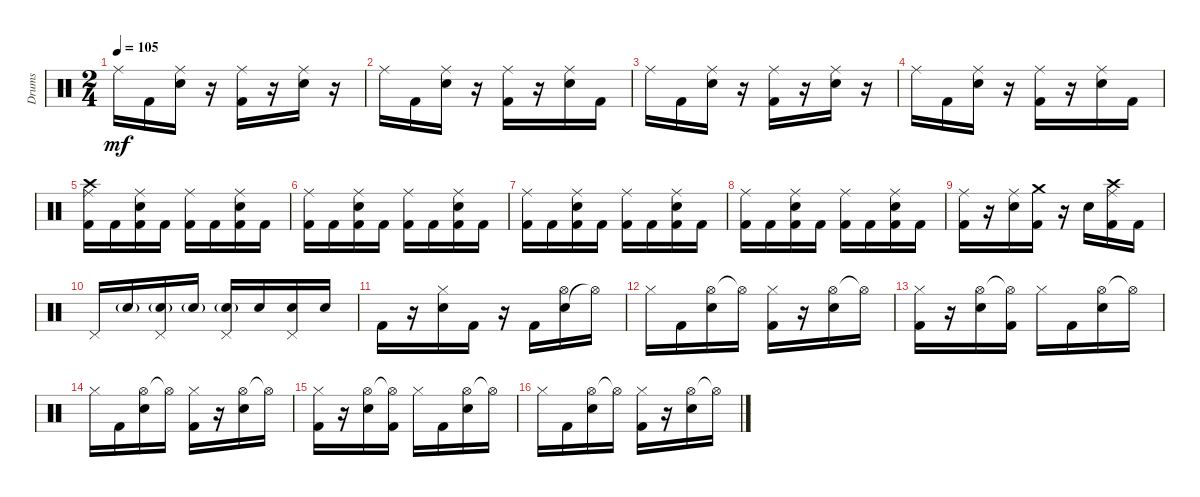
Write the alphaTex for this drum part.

\defaultSystemsLayout 4
\bracketExtendMode groupsimilarinstruments
\otherSystemsTrackNameOrientation horizontal
\track ("Godd" "Drums") {instrument percussion}
\staff {score}
\articulation defaults
\ts (2 4)
\tempo 105
\clef neutral
\ks c "Ride (middle)".16{dy mf} "Kick (hit) 2".16
("Ride (middle)" "Snare (hit) 2").16 r.16 ("Ride (middle)" "Kick (hit) 2").16 r.16 ("Ride (middle)" "Snare (hit) 2").16 r.16 |
"Ride (middle)".16 "Kick (hit) 2".16 ("Ride (middle)" "Snare (hit) 2").16 r.16 ("Ride (middle)" "Kick (hit) 2").16 r.16 ("Ride (middle)" "Snare (hit) 2").16 "Kick (hit) 2".16 |
"Ride (middle)".16 "Kick (hit) 2".16 ("Ride (middle)" "Snare (hit) 2").16 r.16 ("Ride (middle)" "Kick (hit) 2").16 r.16 ("Ride (middle)" "Snare (hit) 2").16 r.16 |
"Ride (middle)".16 "Kick (hit) 2".16 ("Ride (middle)" "Snare (hit) 2").16 r.16 ("Ride (middle)" "Kick (hit) 2").16 r.16 ("Ride (middle)" "Snare (hit) 2").16 "Kick (hit) 2".16 |
("Ride (middle)" "Crash high (hit)" "Kick (hit) 2").16 "Kick (hit) 2".16 ("Ride (middle)" "Snare (hit) 2" "Kick (hit) 2").16 "Kick (hit) 2".16 ("Ride (middle)" "Kick (hit) 2").16 "Kick (hit) 2".16 ("Ride (middle)" "Snare (hit) 2" "Kick (hit) 2").16 "Kick (hit) 2".16 |
("Ride (middle)" "Kick (hit) 2").16 "Kick (hit) 2".16 ("Ride (middle)" "Snare (hit) 2" "Kick (hit) 2").16 "Kick (hit) 2".16 ("Ride (middle)" "Kick (hit) 2").16 "Kick (hit) 2".16 ("Ride (middle)" "Snare (hit) 2" "Kick (hit) 2").16 "Kick (hit) 2".16 |
("Ride (middle)" "Kick (hit) 2").16 "Kick (hit) 2".16 ("Ride (middle)" "Snare (hit) 2" "Kick (hit) 2").16 "Kick (hit) 2".16 ("Ride (middle)" "Kick (hit) 2").16 "Kick (hit) 2".16 ("Ride (middle)" "Snare (hit) 2" "Kick (hit) 2").16 "Kick (hit) 2".16 |
("Ride (middle)" "Kick (hit) 2").16 "Kick (hit) 2".16 ("Ride (middle)" "Snare (hit) 2" "Kick (hit) 2").16 "Kick (hit) 2".16 ("Ride (middle)" "Kick (hit) 2").16 "Kick (hit) 2".16 ("Ride (middle)" "Snare (hit) 2" "Kick (hit) 2").16 "Kick (hit) 2".16 |
("Ride (middle)" "Kick (hit) 2").16 r.16 ("Ride (middle)" "Snare (hit) 2").16 ("Kick (hit) 2" "Crash medium (hit)").16 r.16 "Snare (hit) 2".16 ("Ride (middle)" "Crash high (hit)" "Kick (hit) 2").16 "Kick (hit) 2".16 |
"Pedal Hi-Hat (hit)".16 "Snare (hit) 2"{g}.16 ("Pedal Hi-Hat (hit)" "Snare (hit) 2"{g}).16 "Snare (hit) 2"{g}.16 ("Pedal Hi-Hat (hit)" "Snare (hit) 2"{g}).16 "Snare (hit) 2".16 ("Pedal Hi-Hat (hit)" "Snare (hit) 2").16 "Snare (hit) 2".16 |
"Kick (hit) 2".16 r.16 ("Snare (hit) 2" "Hi-Hat (closed)").16 "Kick (hit) 2".16 r.16 "Kick (hit) 2".16 ("Snare (hit) 2" "Hi-Hat (open)").16 "Hi-Hat (open)"{t}.16 |
"Hi-Hat (closed)".16 "Kick (hit) 2".16 ("Hi-Hat (open)" "Snare (hit) 2").16 "Hi-Hat (open)"{t}.16 ("Kick (hit) 2" "Hi-Hat (closed)").16 r.16 ("Hi-Hat (open)" "Snare (hit) 2").16 "Hi-Hat (open)"{t}.16 |
("Hi-Hat (closed)" "Kick (hit) 2").16 r.16 ("Hi-Hat (open)" "Snare (hit) 2").16 ("Hi-Hat (open)"{t} "Kick (hit) 2").16 "Hi-Hat (closed)".16 "Kick (hit) 2".16 ("Hi-Hat (open)" "Snare (hit) 2").16 "Hi-Hat (open)"{t}.16 |
"Hi-Hat (closed)".16 "Kick (hit) 2".16 ("Hi-Hat (open)" "Snare (hit) 2").16 "Hi-Hat (open)"{t}.16 ("Kick (hit) 2" "Hi-Hat (closed)").16 r.16 ("Hi-Hat (open)" "Snare (hit) 2").16 "Hi-Hat (open)"{t}.16 |
("Hi-Hat (closed)" "Kick (hit) 2").16 r.16 ("Hi-Hat (open)" "Snare (hit) 2").16 ("Hi-Hat (open)"{t} "Kick (hit) 2").16 "Hi-Hat (closed)".16 "Kick (hit) 2".16 ("Hi-Hat (open)" "Snare (hit) 2").16 "Hi-Hat (open)"{t}.16 |
"Hi-Hat (closed)".16 "Kick (hit) 2".16 ("Hi-Hat (open)" "Snare (hit) 2").16 "Hi-Hat (open)"{t}.16 ("Kick (hit) 2" "Hi-Hat (closed)").16 r.16 ("Hi-Hat (open)" "Snare (hit) 2").16 "Hi-Hat (open)"{t}.16
